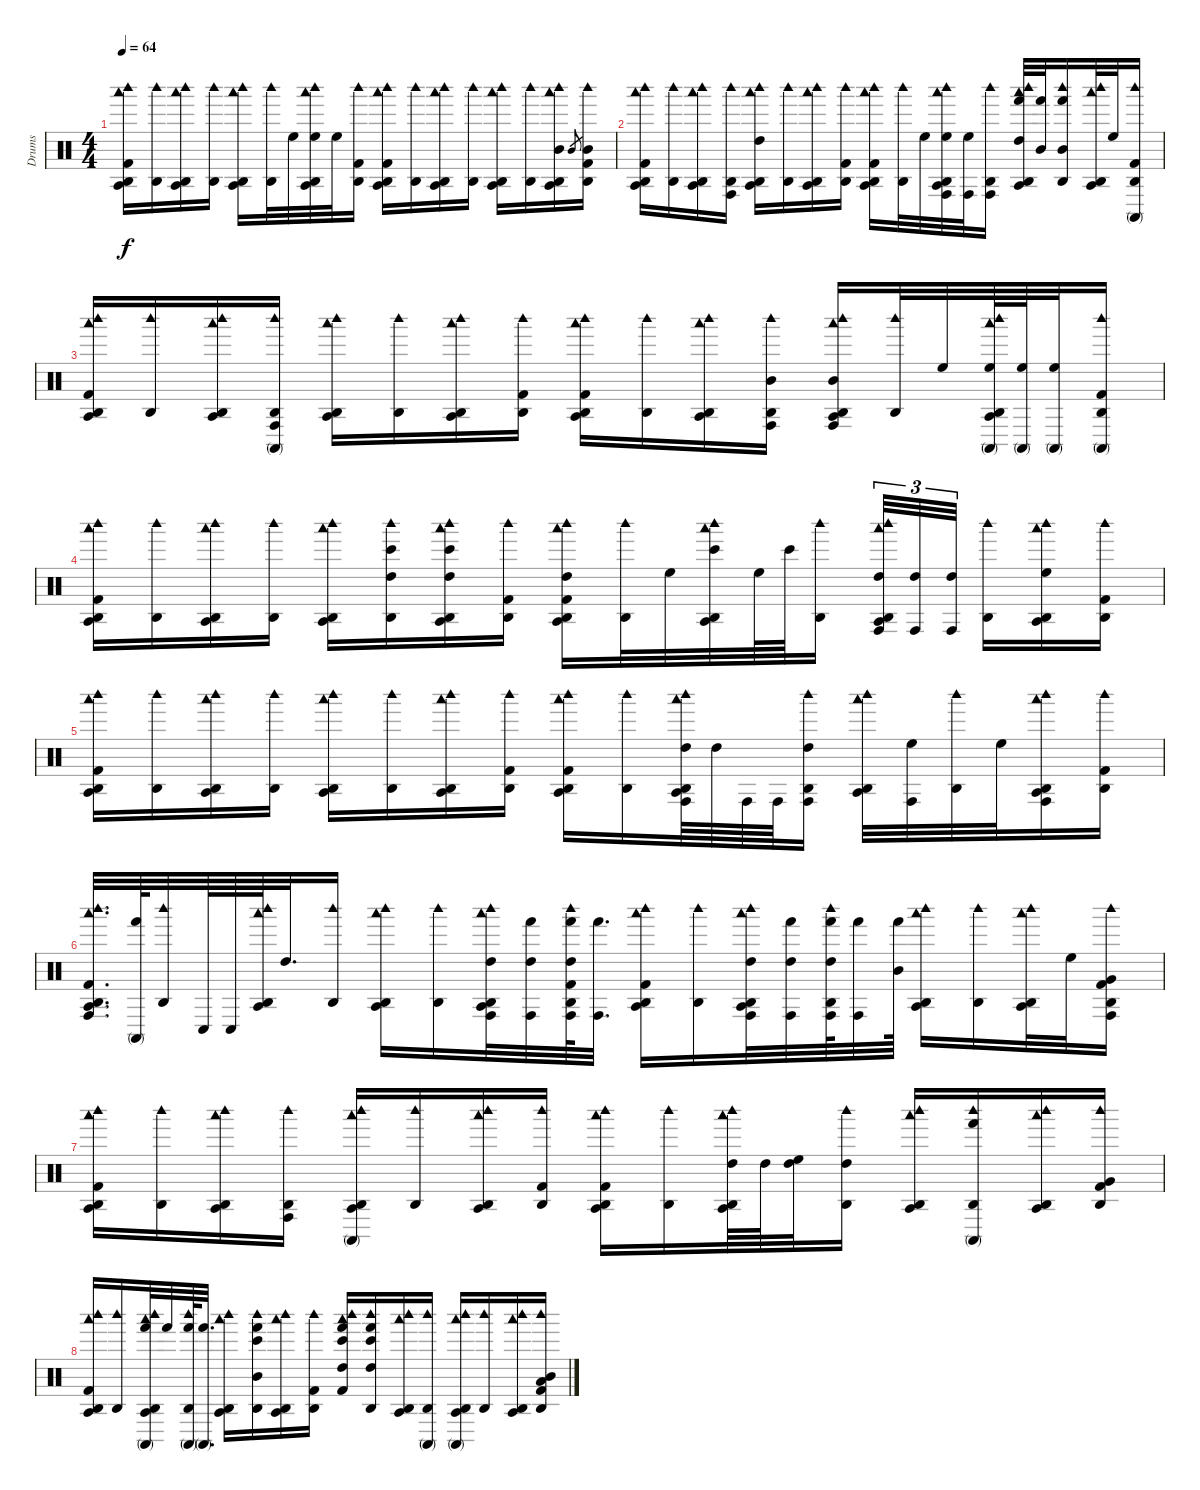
\track ("Drums" "Drums") {instrument percussion}
\staff {score}
\articulation defaults
\ts (4 4)
\tempo 64
\clef neutral
\ks c
("Agogo tow (hit)" "Agogo high (hit)" "Kick (hit) 2" "Woodblock high (hit)" "Woodblock low (hit)").16{dy f} ("Agogo high (hit)" "Woodblock high (hit)").16 ("Woodblock high (hit)" "Agogo high (hit)" "Agogo tow (hit)" "Woodblock low (hit)").16 ("Woodblock high (hit)" "Agogo high (hit)").16 ("Agogo tow (hit)" "Woodblock low (hit)" "Woodblock high (hit)" "Agogo high (hit)").16 ("Agogo high (hit)" "Woodblock high (hit)").32 "High Floor Tom (hit)".32 ("Agogo tow (hit)" "Woodblock low (hit)" "Woodblock high (hit)" "Agogo high (hit)" "High Floor Tom (hit)").32 "High Floor Tom (hit)".32 ("Kick (hit) 2" "Woodblock high (hit)" "Agogo high (hit)").16 ("Woodblock low (hit)" "Agogo tow (hit)" "Kick (hit) 2" "Agogo high (hit)" "Woodblock high (hit)").16 ("Agogo high (hit)" "Woodblock high (hit)").16 ("Woodblock low (hit)" "Woodblock high (hit)" "Agogo tow (hit)" "Agogo high (hit)").16 ("Agogo high (hit)" "Woodblock high (hit)").16 ("Agogo tow (hit)" "Woodblock high (hit)" "Woodblock low (hit)" "Agogo high (hit)").16 ("Agogo high (hit)" "Woodblock high (hit)").16 ("Woodblock low (hit)" "Mid Tom (hit)" "Woodblock high (hit)" "Agogo tow (hit)" "Agogo high (hit)").16 "Mid Tom (hit)".8{gr} ("Woodblock high (hit)" "Kick (hit) 2" "Agogo high (hit)" "Mid Tom (hit)").16 |
("Woodblock low (hit)" "Woodblock high (hit)" "Agogo tow (hit)" "Agogo high (hit)" "Kick (hit) 2").16 ("Agogo high (hit)" "Woodblock high (hit)").16 ("Woodblock low (hit)" "Agogo high (hit)" "Agogo tow (hit)" "Woodblock high (hit)").16 ("Conga high (hit)" "Agogo high (hit)" "Woodblock high (hit)").16 ("High Tom (hit)" "Woodblock low (hit)" "Agogo tow (hit)" "Woodblock high (hit)" "Agogo high (hit)").16 ("Woodblock high (hit)" "Agogo high (hit)").16 ("Agogo tow (hit)" "Woodblock low (hit)" "Woodblock high (hit)" "Agogo high (hit)").16 ("Agogo high (hit)" "Woodblock high (hit)" "Kick (hit) 2").16 ("Agogo high (hit)" "Kick (hit) 2" "Woodblock low (hit)" "Woodblock high (hit)" "Agogo tow (hit)").16 ("Woodblock high (hit)" "Agogo high (hit)").32 "High Floor Tom (hit)".32 ("Agogo tow (hit)" "Conga high (hit)" "Woodblock high (hit)" "Woodblock low (hit)" "Agogo high (hit)" "High Floor Tom (hit)").32 ("Conga high (hit)" "High Floor Tom (hit)").32 ("Agogo high (hit)" "Woodblock high (hit)" "Conga high (hit)").16 ("High Tom (hit)" "Woodblock high (hit)" "Agogo high (hit)" "Woodblock low (hit)" "Agogo tow (hit)" "Hand (hit)").32 ("Hand (hit)" "Mid Tom (hit)").32 ("Woodblock high (hit)" "Agogo high (hit)" "Mid Tom (hit)" "Hand (hit)").16 ("Woodblock low (hit)" "Woodblock high (hit)" "Agogo tow (hit)" "Agogo high (hit)").32 "High Floor Tom (hit)".32 ("Agogo high (hit)" "Conga high (mute)" "Woodblock high (hit)" "Kick (hit) 2").16 |
("Woodblock high (hit)" "Agogo tow (hit)" "Agogo high (hit)" "Kick (hit) 2" "Woodblock low (hit)").16 ("Woodblock high (hit)" "Agogo high (hit)").16 ("Woodblock high (hit)" "Woodblock low (hit)" "Agogo high (hit)" "Agogo tow (hit)").16 ("Conga high (mute)" "Agogo high (hit)" "Woodblock high (hit)" "Conga high (hit)").16 ("Agogo tow (hit)" "Woodblock high (hit)" "Woodblock low (hit)" "Agogo high (hit)").16 ("Agogo high (hit)" "Woodblock high (hit)").16 ("Woodblock low (hit)" "Agogo tow (hit)" "Woodblock high (hit)" "Agogo high (hit)").16 ("Kick (hit) 2" "Woodblock high (hit)" "Agogo high (hit)").16 ("Agogo high (hit)" "Agogo tow (hit)" "Woodblock low (hit)" "Woodblock high (hit)" "Kick (hit) 2").16 ("Agogo high (hit)" "Woodblock high (hit)").16 ("Agogo tow (hit)" "Woodblock low (hit)" "Agogo high (hit)" "Woodblock high (hit)").16 ("Mid Tom (hit)" "Conga high (hit)" "Agogo high (hit)" "Woodblock high (hit)").16 ("Conga high (hit)" "Mid Tom (hit)" "Woodblock low (hit)" "Woodblock high (hit)" "Agogo tow (hit)" "Agogo high (hit)").16 ("Agogo high (hit)" "Woodblock high (hit)").32 "High Floor Tom (hit)".32 ("High Floor Tom (hit)" "Conga high (mute)" "Agogo high (hit)" "Agogo tow (hit)" "Woodblock low (hit)" "Woodblock high (hit)").64 ("High Floor Tom (hit)" "Conga high (mute)").64 ("High Floor Tom (hit)" "Conga high (mute)").32 ("Agogo high (hit)" "Woodblock high (hit)" "Kick (hit) 2" "Conga high (mute)").16 |
("Kick (hit) 2" "Woodblock high (hit)" "Agogo high (hit)" "Agogo tow (hit)" "Woodblock low (hit)").16 ("Agogo high (hit)" "Woodblock high (hit)").16 ("Agogo high (hit)" "Woodblock high (hit)" "Agogo tow (hit)" "Woodblock low (hit)").16 ("Agogo high (hit)" "Woodblock high (hit)").16 ("Agogo tow (hit)" "Woodblock low (hit)" "Woodblock high (hit)" "Agogo high (hit)").16 ("Woodblock high (hit)" "High Tom (hit)" "Bongo High (hit)" "Agogo high (hit)").16 ("Woodblock high (hit)" "Agogo tow (hit)" "Bongo High (hit)" "Agogo high (hit)" "Woodblock low (hit)" "High Tom (hit)").16 ("Agogo high (hit)" "Kick (hit) 2" "Woodblock high (hit)").16 ("Agogo high (hit)" "Kick (hit) 2" "Woodblock low (hit)" "Agogo tow (hit)" "High Tom (hit)" "Woodblock high (hit)").16 ("Woodblock high (hit)" "Agogo high (hit)").32 "High Floor Tom (hit)".32 ("Bongo High (hit)" "Agogo tow (hit)" "Agogo high (hit)" "Woodblock low (hit)" "Woodblock high (hit)").32 "High Floor Tom (hit)".64 "Bongo High (hit)".64 ("Agogo high (hit)" "Woodblock high (hit)").16 ("Conga high (hit)" "High Tom (hit)" "Agogo high (hit)" "Agogo tow (hit)" "Woodblock low (hit)" "Woodblock high (hit)").32{tu (3 2)} ("Conga high (hit)" "High Tom (hit)").32{tu (3 2)} ("Conga high (hit)" "High Tom (hit)").32{tu (3 2) beam splitsecondary} ("Agogo high (hit)" "Woodblock high (hit)").16 ("Agogo high (hit)" "Woodblock low (hit)" "Agogo tow (hit)" "Woodblock high (hit)" "High Floor Tom (hit)").16 ("Woodblock high (hit)" "Agogo high (hit)" "Kick (hit) 2").16 |
("Agogo tow (hit)" "Kick (hit) 2" "Woodblock low (hit)" "Agogo high (hit)" "Woodblock high (hit)").16 ("Agogo high (hit)" "Woodblock high (hit)").16 ("Agogo tow (hit)" "Woodblock low (hit)" "Woodblock high (hit)" "Agogo high (hit)").16 ("Woodblock high (hit)" "Agogo high (hit)").16 ("Woodblock high (hit)" "Agogo high (hit)" "Woodblock low (hit)" "Agogo tow (hit)").16 ("Woodblock high (hit)" "Agogo high (hit)").16 ("Agogo tow (hit)" "Woodblock low (hit)" "Woodblock high (hit)" "Agogo high (hit)").16 ("Woodblock high (hit)" "Agogo high (hit)" "Kick (hit) 2").16 ("Kick (hit) 2" "Woodblock low (hit)" "Agogo tow (hit)" "Woodblock high (hit)" "Agogo high (hit)").16 ("Woodblock high (hit)" "Agogo high (hit)").16 ("Woodblock high (hit)" "Agogo tow (hit)" "High Tom (hit)" "Agogo high (hit)" "Woodblock low (hit)" "Conga high (hit)").64 "High Tom (hit)".64 "Conga high (hit)".64 "Conga high (hit)".64 ("Conga high (hit)" "Agogo high (hit)" "Woodblock high (hit)" "High Tom (hit)").16 ("Woodblock high (hit)" "Woodblock low (hit)" "Agogo high (hit)" "Agogo tow (hit)").32 ("Conga high (hit)" "High Floor Tom (hit)").32 ("Agogo high (hit)" "Woodblock high (hit)").32 "High Floor Tom (hit)".32 ("Conga high (hit)" "Agogo tow (hit)" "Woodblock low (hit)" "Woodblock high (hit)" "Agogo high (hit)").16 ("Kick (hit) 2" "Woodblock high (hit)" "Agogo high (hit)").16 |
("Conga high (hit)" "Agogo high (hit)" "Woodblock low (hit)" "Woodblock high (hit)" "Kick (hit) 2" "Agogo tow (hit)").32{d} ("Hand (hit)" "Conga high (mute)").64 ("Woodblock high (hit)" "Agogo high (hit)").32 "Conga low (hit)".64 "Conga low (hit)".64 ("Agogo high (hit)" "Woodblock high (hit)" "Woodblock low (hit)" "Agogo tow (hit)").64 "High Tom (hit)".32{d} ("Agogo high (hit)" "Woodblock high (hit)").16 ("Agogo tow (hit)" "Woodblock high (hit)" "Agogo high (hit)" "Woodblock low (hit)").16 ("Woodblock high (hit)" "Agogo high (hit)").16 ("Woodblock high (hit)" "Woodblock low (hit)" "Agogo high (hit)" "Agogo tow (hit)" "High Tom (hit)" "Conga high (hit)").32 ("High Tom (hit)" "Conga high (hit)" "Hand (hit)").32 ("Conga high (hit)" "Hand (hit)" "Agogo high (hit)" "Kick (hit) 2" "Woodblock high (hit)" "High Tom (hit)").64 ("Conga high (hit)" "Hand (hit)").32{d} ("Woodblock high (hit)" "Agogo tow (hit)" "Agogo high (hit)" "Kick (hit) 2" "Woodblock low (hit)").16 ("Woodblock high (hit)" "Agogo high (hit)").16 ("Woodblock high (hit)" "Agogo high (hit)" "Woodblock low (hit)" "Agogo tow (hit)" "High Tom (hit)" "Conga high (hit)").32 ("High Tom (hit)" "Conga high (hit)" "Hand (hit)").32 ("Conga high (hit)" "Hand (hit)" "Woodblock high (hit)" "Agogo high (hit)" "High Tom (hit)").64 ("Conga high (hit)" "Hand (hit)").32 ("Hand (hit)" "Mid Tom (hit)").64 ("Woodblock high (hit)" "Agogo high (hit)" "Woodblock low (hit)" "Agogo tow (hit)").16 ("Agogo high (hit)" "Woodblock high (hit)").16 ("Woodblock high (hit)" "Agogo high (hit)" "Agogo tow (hit)" "Woodblock low (hit)").32 "High Floor Tom (hit)".32 ("Conga high (hit)" "Very Low Tom (hit)" "Agogo high (hit)" "Woodblock high (hit)" "Kick (hit) 2").16 |
("Woodblock high (hit)" "Agogo tow (hit)" "Agogo high (hit)" "Kick (hit) 2" "Woodblock low (hit)").16 ("Agogo high (hit)" "Woodblock high (hit)").16 ("Agogo high (hit)" "Woodblock high (hit)" "Woodblock low (hit)" "Agogo tow (hit)").16 ("Woodblock high (hit)" "Agogo high (hit)" "Conga high (hit)").16 ("Woodblock high (hit)" "Woodblock low (hit)" "Agogo high (hit)" "Agogo tow (hit)" "Conga high (mute)").16 ("Woodblock high (hit)" "Agogo high (hit)").16 ("Agogo high (hit)" "Woodblock low (hit)" "Woodblock high (hit)" "Agogo tow (hit)").16 ("Agogo high (hit)" "Kick (hit) 2" "Woodblock high (hit)").16 ("Woodblock low (hit)" "Agogo tow (hit)" "Agogo high (hit)" "Kick (hit) 2" "Woodblock high (hit)").16 ("Agogo high (hit)" "Woodblock high (hit)").16 ("High Tom (hit)" "Agogo high (hit)" "Woodblock high (hit)" "Agogo tow (hit)" "Woodblock low (hit)").64 "High Tom (hit)".64 ("High Floor Tom (hit)" "High Tom (hit)").32 ("Agogo high (hit)" "Woodblock high (hit)" "High Tom (hit)").16 ("Woodblock high (hit)" "Agogo tow (hit)" "Woodblock low (hit)" "Agogo high (hit)").16 ("Conga high (mute)" "Hand (hit)" "Woodblock high (hit)" "Agogo high (hit)").16 ("Woodblock low (hit)" "Agogo high (hit)" "Woodblock high (hit)" "Agogo tow (hit)").16 ("Very Low Tom (hit)" "Woodblock high (hit)" "Kick (hit) 2" "Agogo high (hit)").16 |
("Agogo high (hit)" "Kick (hit) 2" "Agogo tow (hit)" "Woodblock high (hit)" "Woodblock low (hit)").16 ("Woodblock high (hit)" "Agogo high (hit)").16 ("Agogo tow (hit)" "Woodblock high (hit)" "Woodblock low (hit)" "Conga high (mute)" "Hand (hit)" "Agogo high (hit)").32 "Hand (hit)".32 ("Hand (hit)" "Conga high (mute)" "Woodblock high (hit)" "Agogo high (hit)").64 ("Hand (hit)" "Conga high (mute)").32{d} ("Agogo tow (hit)" "Woodblock high (hit)" "Woodblock low (hit)" "Agogo high (hit)").16 ("Mid Tom (hit)" "Bongo High (hit)" "Hand (hit)" "Woodblock high (hit)" "Agogo high (hit)").16 ("Woodblock high (hit)" "Agogo high (hit)" "Woodblock low (hit)" "Agogo tow (hit)").16 ("Kick (hit) 2" "Woodblock high (hit)" "Agogo high (hit)").16 ("High Tom (hit)" "Bongo High (hit)" "Hand (hit)" "Woodblock high (hit)" "Kick (hit) 2" "Woodblock low (hit)").16 ("Agogo high (hit)" "Bongo High (hit)" "Hand (hit)" "Woodblock high (hit)" "High Tom (hit)").16 ("Woodblock low (hit)" "Agogo high (hit)" "Agogo tow (hit)" "Woodblock high (hit)").16 ("Woodblock high (hit)" "Conga high (mute)" "Agogo high (hit)").16 ("Woodblock high (hit)" "Agogo tow (hit)" "Woodblock low (hit)" "Agogo high (hit)" "Conga high (mute)").16 ("Agogo high (hit)" "Woodblock high (hit)").16 ("Agogo high (hit)" "Woodblock low (hit)" "Woodblock high (hit)" "Agogo tow (hit)").16 ("Mid Tom (hit)" "Low Floor Tom (hit)" "Kick (hit) 2" "Woodblock high (hit)" "Agogo high (hit)").16
